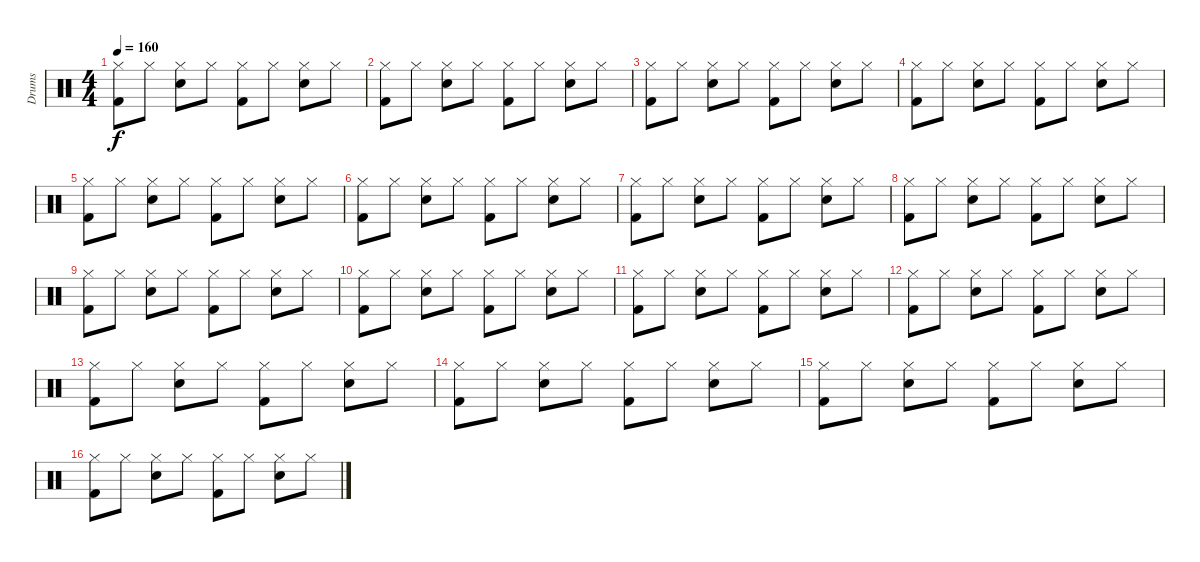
\track ("Drums" "Drums") {instrument percussion}
\staff {score}
\articulation defaults
\ts (4 4)
\tempo 160
\clef neutral
\ks c
("Hi-Hat (closed)" "Kick (hit) 2").8{dy f} "Hi-Hat (closed)".8 ("Hi-Hat (closed)" "Electric Snare (hit)").8 "Hi-Hat (closed)".8 ("Hi-Hat (closed)" "Kick (hit) 2").8 "Hi-Hat (closed)".8 ("Hi-Hat (closed)" "Electric Snare (hit)").8 "Hi-Hat (closed)".8 |
("Hi-Hat (closed)" "Kick (hit) 2").8 "Hi-Hat (closed)".8 ("Hi-Hat (closed)" "Electric Snare (hit)").8 "Hi-Hat (closed)".8 ("Hi-Hat (closed)" "Kick (hit) 2").8 "Hi-Hat (closed)".8 ("Hi-Hat (closed)" "Electric Snare (hit)").8 "Hi-Hat (closed)".8 |
("Hi-Hat (closed)" "Kick (hit) 2").8 "Hi-Hat (closed)".8 ("Hi-Hat (closed)" "Electric Snare (hit)").8 "Hi-Hat (closed)".8 ("Hi-Hat (closed)" "Kick (hit) 2").8 "Hi-Hat (closed)".8 ("Hi-Hat (closed)" "Electric Snare (hit)").8 "Hi-Hat (closed)".8 |
("Hi-Hat (closed)" "Kick (hit) 2").8 "Hi-Hat (closed)".8 ("Hi-Hat (closed)" "Electric Snare (hit)").8 "Hi-Hat (closed)".8 ("Hi-Hat (closed)" "Kick (hit) 2").8 "Hi-Hat (closed)".8 ("Hi-Hat (closed)" "Electric Snare (hit)").8 "Hi-Hat (closed)".8 |
("Hi-Hat (closed)" "Kick (hit) 2").8 "Hi-Hat (closed)".8 ("Hi-Hat (closed)" "Electric Snare (hit)").8 "Hi-Hat (closed)".8 ("Hi-Hat (closed)" "Kick (hit) 2").8 "Hi-Hat (closed)".8 ("Hi-Hat (closed)" "Electric Snare (hit)").8 "Hi-Hat (closed)".8 |
("Hi-Hat (closed)" "Kick (hit) 2").8 "Hi-Hat (closed)".8 ("Hi-Hat (closed)" "Electric Snare (hit)").8 "Hi-Hat (closed)".8 ("Hi-Hat (closed)" "Kick (hit) 2").8 "Hi-Hat (closed)".8 ("Hi-Hat (closed)" "Electric Snare (hit)").8 "Hi-Hat (closed)".8 |
("Hi-Hat (closed)" "Kick (hit) 2").8 "Hi-Hat (closed)".8 ("Hi-Hat (closed)" "Electric Snare (hit)").8 "Hi-Hat (closed)".8 ("Hi-Hat (closed)" "Kick (hit) 2").8 "Hi-Hat (closed)".8 ("Hi-Hat (closed)" "Electric Snare (hit)").8 "Hi-Hat (closed)".8 |
("Hi-Hat (closed)" "Kick (hit) 2").8 "Hi-Hat (closed)".8 ("Hi-Hat (closed)" "Electric Snare (hit)").8 "Hi-Hat (closed)".8 ("Hi-Hat (closed)" "Kick (hit) 2").8 "Hi-Hat (closed)".8 ("Hi-Hat (closed)" "Electric Snare (hit)").8 "Hi-Hat (closed)".8 |
("Hi-Hat (closed)" "Kick (hit) 2").8 "Hi-Hat (closed)".8 ("Hi-Hat (closed)" "Electric Snare (hit)").8 "Hi-Hat (closed)".8 ("Hi-Hat (closed)" "Kick (hit) 2").8 "Hi-Hat (closed)".8 ("Hi-Hat (closed)" "Electric Snare (hit)").8 "Hi-Hat (closed)".8 |
("Hi-Hat (closed)" "Kick (hit) 2").8 "Hi-Hat (closed)".8 ("Hi-Hat (closed)" "Electric Snare (hit)").8 "Hi-Hat (closed)".8 ("Hi-Hat (closed)" "Kick (hit) 2").8 "Hi-Hat (closed)".8 ("Hi-Hat (closed)" "Electric Snare (hit)").8 "Hi-Hat (closed)".8 |
("Hi-Hat (closed)" "Kick (hit) 2").8 "Hi-Hat (closed)".8 ("Hi-Hat (closed)" "Electric Snare (hit)").8 "Hi-Hat (closed)".8 ("Hi-Hat (closed)" "Kick (hit) 2").8 "Hi-Hat (closed)".8 ("Hi-Hat (closed)" "Electric Snare (hit)").8 "Hi-Hat (closed)".8 |
("Hi-Hat (closed)" "Kick (hit) 2").8 "Hi-Hat (closed)".8 ("Hi-Hat (closed)" "Electric Snare (hit)").8 "Hi-Hat (closed)".8 ("Hi-Hat (closed)" "Kick (hit) 2").8 "Hi-Hat (closed)".8 ("Hi-Hat (closed)" "Electric Snare (hit)").8 "Hi-Hat (closed)".8 |
("Hi-Hat (closed)" "Kick (hit) 2").8 "Hi-Hat (closed)".8 ("Hi-Hat (closed)" "Electric Snare (hit)").8 "Hi-Hat (closed)".8 ("Hi-Hat (closed)" "Kick (hit) 2").8 "Hi-Hat (closed)".8 ("Hi-Hat (closed)" "Electric Snare (hit)").8 "Hi-Hat (closed)".8 |
("Hi-Hat (closed)" "Kick (hit) 2").8 "Hi-Hat (closed)".8 ("Hi-Hat (closed)" "Electric Snare (hit)").8 "Hi-Hat (closed)".8 ("Hi-Hat (closed)" "Kick (hit) 2").8 "Hi-Hat (closed)".8 ("Hi-Hat (closed)" "Electric Snare (hit)").8 "Hi-Hat (closed)".8 |
("Hi-Hat (closed)" "Kick (hit) 2").8 "Hi-Hat (closed)".8 ("Hi-Hat (closed)" "Electric Snare (hit)").8 "Hi-Hat (closed)".8 ("Hi-Hat (closed)" "Kick (hit) 2").8 "Hi-Hat (closed)".8 ("Hi-Hat (closed)" "Electric Snare (hit)").8 "Hi-Hat (closed)".8 |
("Hi-Hat (closed)" "Kick (hit) 2").8 "Hi-Hat (closed)".8 ("Hi-Hat (closed)" "Electric Snare (hit)").8 "Hi-Hat (closed)".8 ("Hi-Hat (closed)" "Kick (hit) 2").8 "Hi-Hat (closed)".8 ("Hi-Hat (closed)" "Electric Snare (hit)").8 "Hi-Hat (closed)".8
